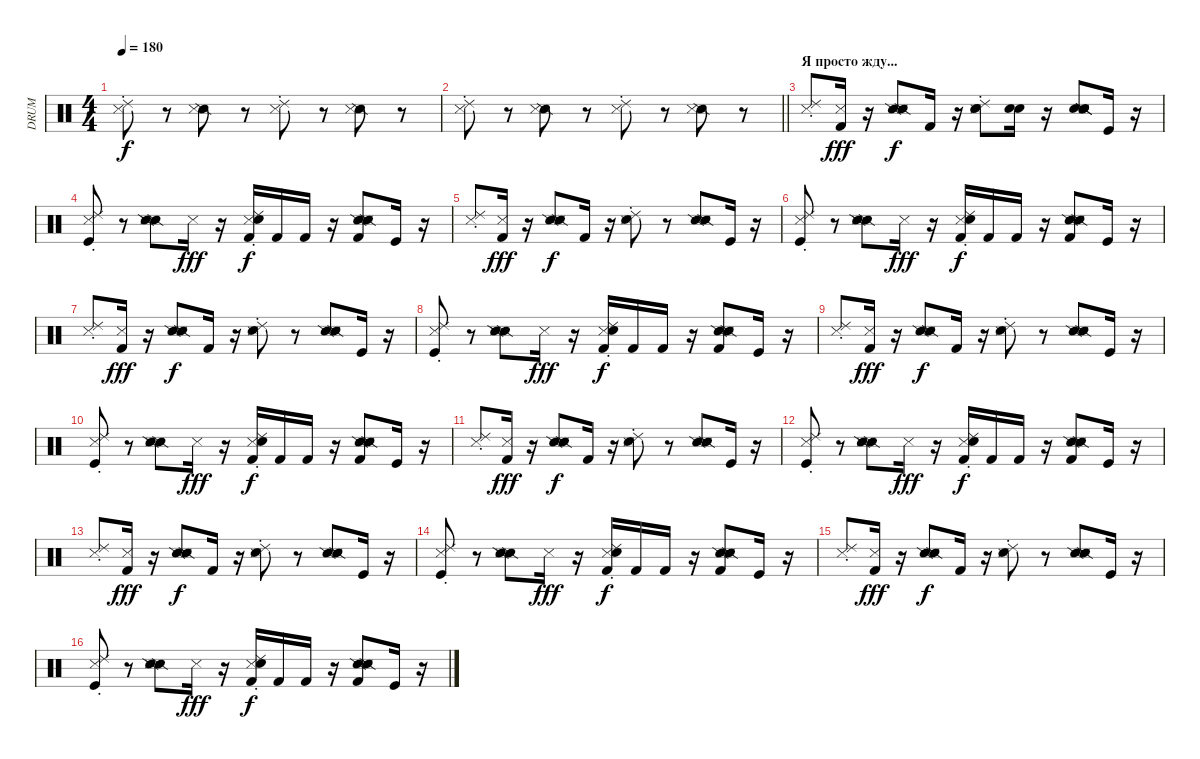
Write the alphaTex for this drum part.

\track ("DRUM" "DRUM") {instrument percussion}
\staff {score}
\articulation defaults
\ts (4 4)
\tempo 180
\clef neutral
\ks c
("Metronome (hit)" "Ride (choke) 2").8{dy f} r.8 ("Snare (side stick) 2" "Metronome (hit)").8 r.8 ("Metronome (hit)" "Ride (choke) 2").8 r.8 ("Snare (side stick) 2" "Metronome (hit)").8 r.8 |
\barLineRight lightlight
("Metronome (hit)" "Ride (choke) 2").8 r.8 ("Snare (side stick) 2" "Metronome (hit)").8 r.8 ("Metronome (hit)" "Ride (choke) 2").8 r.8 ("Snare (side stick) 2" "Metronome (hit)").8 r.8 |
\section ("" "Я просто жду...")
("Metronome (hit)" "Ride (choke) 2").8 ("Snare (side stick) 3" "Kick (hit) 2").16{dy fff} r.16 ("Snare (side stick) 2" "Snare (side stick) 2" "Metronome (hit)").8{dy f} "Kick (hit) 2".16 r.16 ("Snare (hit) 2" "Electric Snare (hit)" "Metronome (hit)" "Ride (choke) 2").8 ("Snare (hit) 2" "Electric Snare (hit)").16 r.16 ("Snare (hit) 2" "Electric Snare (hit)" "Snare (side stick) 2" "Snare (side stick) 2" "Metronome (hit)").8 "Kick (hit)".16 r.16 |
("Metronome (hit)" "Ride (choke) 2" "Kick (hit)").8 r.8 ("Snare (side stick) 2" "Metronome (hit)" "Snare (side stick) 2").8 "Snare (side stick) 3".16{dy fff} r.16 ("Metronome (hit)" "Ride (choke) 2" "Kick (hit) 2" "Snare (hit) 2").16{dy f} "Kick (hit) 2".16 "Kick (hit) 2".16 r.16 ("Snare (side stick) 2" "Metronome (hit)" "Snare (side stick) 2" "Kick (hit) 2").8 "Kick (hit)".16 r.16 |
("Metronome (hit)" "Ride (choke) 2").8 ("Snare (side stick) 3" "Kick (hit) 2").16{dy fff} r.16 ("Snare (side stick) 2" "Snare (side stick) 2" "Metronome (hit)").8{dy f} "Kick (hit) 2".16 r.16 ("Snare (hit) 2" "Metronome (hit)" "Ride (choke) 2").8 r.8 ("Snare (side stick) 2" "Snare (side stick) 2" "Metronome (hit)").8 "Kick (hit)".16 r.16 |
("Metronome (hit)" "Ride (choke) 2" "Kick (hit)").8 r.8 ("Snare (side stick) 2" "Metronome (hit)" "Snare (side stick) 2").8 "Snare (side stick) 3".16{dy fff} r.16 ("Metronome (hit)" "Ride (choke) 2" "Kick (hit) 2" "Snare (hit) 2").16{dy f} "Kick (hit) 2".16 "Kick (hit) 2".16 r.16 ("Snare (side stick) 2" "Metronome (hit)" "Snare (side stick) 2" "Kick (hit) 2").8 "Kick (hit)".16 r.16 |
("Metronome (hit)" "Ride (choke) 2").8 ("Snare (side stick) 3" "Kick (hit) 2").16{dy fff} r.16 ("Snare (side stick) 2" "Snare (side stick) 2" "Metronome (hit)").8{dy f} "Kick (hit) 2".16 r.16 ("Snare (hit) 2" "Metronome (hit)" "Ride (choke) 2").8 r.8 ("Snare (side stick) 2" "Snare (side stick) 2" "Metronome (hit)").8 "Kick (hit)".16 r.16 |
("Metronome (hit)" "Ride (choke) 2" "Kick (hit)").8 r.8 ("Snare (side stick) 2" "Metronome (hit)" "Snare (side stick) 2").8 "Snare (side stick) 3".16{dy fff} r.16 ("Metronome (hit)" "Ride (choke) 2" "Kick (hit) 2" "Snare (hit) 2").16{dy f} "Kick (hit) 2".16 "Kick (hit) 2".16 r.16 ("Snare (side stick) 2" "Metronome (hit)" "Snare (side stick) 2" "Kick (hit) 2").8 "Kick (hit)".16 r.16 |
("Metronome (hit)" "Ride (choke) 2").8 ("Snare (side stick) 3" "Kick (hit) 2").16{dy fff} r.16 ("Snare (side stick) 2" "Snare (side stick) 2" "Metronome (hit)").8{dy f} "Kick (hit) 2".16 r.16 ("Snare (hit) 2" "Metronome (hit)" "Ride (choke) 2").8 r.8 ("Snare (side stick) 2" "Snare (side stick) 2" "Metronome (hit)").8 "Kick (hit)".16 r.16 |
("Metronome (hit)" "Ride (choke) 2" "Kick (hit)").8 r.8 ("Snare (side stick) 2" "Metronome (hit)" "Snare (side stick) 2").8 "Snare (side stick) 3".16{dy fff} r.16 ("Metronome (hit)" "Ride (choke) 2" "Kick (hit) 2" "Snare (hit) 2").16{dy f} "Kick (hit) 2".16 "Kick (hit) 2".16 r.16 ("Snare (side stick) 2" "Metronome (hit)" "Snare (side stick) 2" "Kick (hit) 2").8 "Kick (hit)".16 r.16 |
("Metronome (hit)" "Ride (choke) 2").8 ("Snare (side stick) 3" "Kick (hit) 2").16{dy fff} r.16 ("Snare (side stick) 2" "Snare (side stick) 2" "Metronome (hit)").8{dy f} "Kick (hit) 2".16 r.16 ("Snare (hit) 2" "Metronome (hit)" "Ride (choke) 2").8 r.8 ("Snare (side stick) 2" "Snare (side stick) 2" "Metronome (hit)").8 "Kick (hit)".16 r.16 |
("Metronome (hit)" "Ride (choke) 2" "Kick (hit)").8 r.8 ("Snare (side stick) 2" "Metronome (hit)" "Snare (side stick) 2").8 "Snare (side stick) 3".16{dy fff} r.16 ("Metronome (hit)" "Ride (choke) 2" "Kick (hit) 2" "Snare (hit) 2").16{dy f} "Kick (hit) 2".16 "Kick (hit) 2".16 r.16 ("Snare (side stick) 2" "Metronome (hit)" "Snare (side stick) 2" "Kick (hit) 2").8 "Kick (hit)".16 r.16 |
("Metronome (hit)" "Ride (choke) 2").8 ("Snare (side stick) 3" "Kick (hit) 2").16{dy fff} r.16 ("Snare (side stick) 2" "Snare (side stick) 2" "Metronome (hit)").8{dy f} "Kick (hit) 2".16 r.16 ("Snare (hit) 2" "Metronome (hit)" "Ride (choke) 2").8 r.8 ("Snare (side stick) 2" "Snare (side stick) 2" "Metronome (hit)").8 "Kick (hit)".16 r.16 |
("Metronome (hit)" "Ride (choke) 2" "Kick (hit)").8 r.8 ("Snare (side stick) 2" "Metronome (hit)" "Snare (side stick) 2").8 "Snare (side stick) 3".16{dy fff} r.16 ("Metronome (hit)" "Ride (choke) 2" "Kick (hit) 2" "Snare (hit) 2").16{dy f} "Kick (hit) 2".16 "Kick (hit) 2".16 r.16 ("Snare (side stick) 2" "Metronome (hit)" "Snare (side stick) 2" "Kick (hit) 2").8 "Kick (hit)".16 r.16 |
("Metronome (hit)" "Ride (choke) 2").8 ("Snare (side stick) 3" "Kick (hit) 2").16{dy fff} r.16 ("Snare (side stick) 2" "Snare (side stick) 2" "Metronome (hit)").8{dy f} "Kick (hit) 2".16 r.16 ("Snare (hit) 2" "Metronome (hit)" "Ride (choke) 2").8 r.8 ("Snare (side stick) 2" "Snare (side stick) 2" "Metronome (hit)").8 "Kick (hit)".16 r.16 |
("Metronome (hit)" "Ride (choke) 2" "Kick (hit)").8 r.8 ("Snare (side stick) 2" "Metronome (hit)" "Snare (side stick) 2").8 "Snare (side stick) 3".16{dy fff} r.16 ("Metronome (hit)" "Ride (choke) 2" "Kick (hit) 2" "Snare (hit) 2").16{dy f} "Kick (hit) 2".16 "Kick (hit) 2".16 r.16 ("Snare (side stick) 2" "Metronome (hit)" "Snare (side stick) 2" "Kick (hit) 2").8 "Kick (hit)".16 r.16
